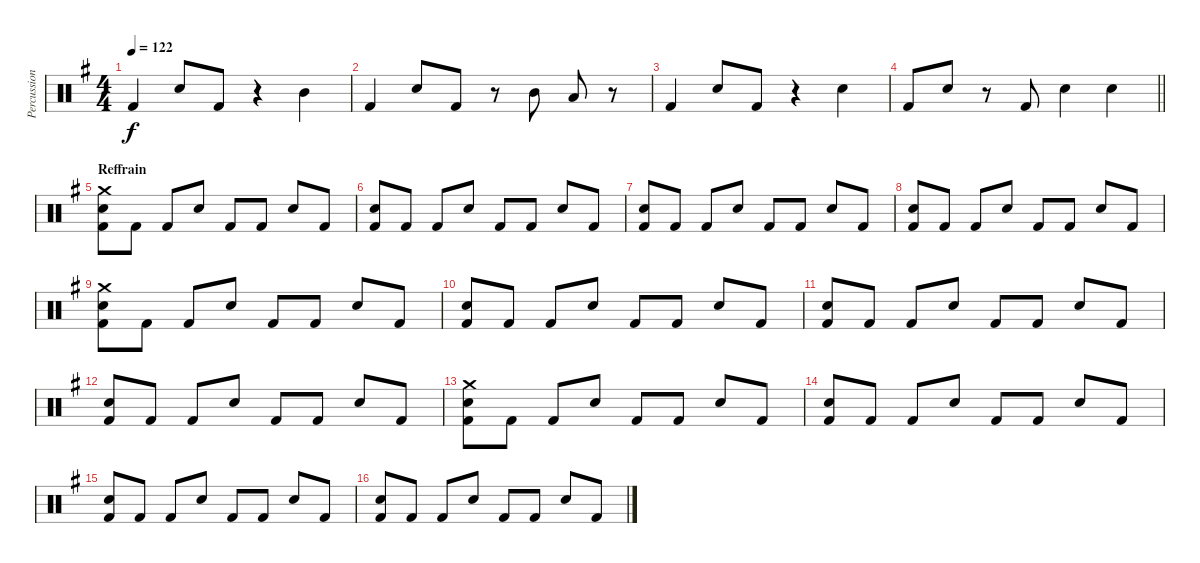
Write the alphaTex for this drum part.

\track ("Percussion" "Percussion") {instrument percussion}
\staff {score}
\articulation defaults
\ts (4 4)
\tempo 122
\clef neutral
\ks g "Kick (hit) 2".4{dy f} "Snare (hit) 2".8 "Kick (hit) 2".8
r.4 "Mid Tom (hit)".4 |
"Kick (hit) 2".4 "Snare (hit) 2".8 "Kick (hit) 2".8 r.8 "Mid Tom (hit)".8 "Low Tom (hit)".8 r.8 |
"Kick (hit) 2".4 "Snare (hit) 2".8 "Kick (hit) 2".8 r.4 "Snare (hit) 2".4 |
\barLineRight lightlight "Kick (hit) 2".8 "Snare (hit) 2".8
r.8 "Kick (hit) 2".8 "Snare (hit) 2".4 "Snare (hit) 2".4 |
\section ("" "Reffrain")
("Crash medium (hit)" "Snare (hit) 2" "Kick (hit) 2").8 "Kick (hit) 2".8 "Kick (hit) 2".8 "Snare (hit) 2".8 "Kick (hit) 2".8 "Kick (hit) 2".8 "Snare (hit) 2".8 "Kick (hit) 2".8 |
("Snare (hit) 2" "Kick (hit) 2").8 "Kick (hit) 2".8 "Kick (hit) 2".8 "Snare (hit) 2".8 "Kick (hit) 2".8 "Kick (hit) 2".8 "Snare (hit) 2".8 "Kick (hit) 2".8 |
("Snare (hit) 2" "Kick (hit) 2").8 "Kick (hit) 2".8 "Kick (hit) 2".8 "Snare (hit) 2".8 "Kick (hit) 2".8 "Kick (hit) 2".8 "Snare (hit) 2".8 "Kick (hit) 2".8 |
("Snare (hit) 2" "Kick (hit) 2").8 "Kick (hit) 2".8 "Kick (hit) 2".8 "Snare (hit) 2".8 "Kick (hit) 2".8 "Kick (hit) 2".8 "Snare (hit) 2".8 "Kick (hit) 2".8 |
("Crash medium (hit)" "Snare (hit) 2" "Kick (hit) 2").8 "Kick (hit) 2".8 "Kick (hit) 2".8 "Snare (hit) 2".8 "Kick (hit) 2".8 "Kick (hit) 2".8 "Snare (hit) 2".8 "Kick (hit) 2".8 |
("Snare (hit) 2" "Kick (hit) 2").8 "Kick (hit) 2".8 "Kick (hit) 2".8 "Snare (hit) 2".8 "Kick (hit) 2".8 "Kick (hit) 2".8 "Snare (hit) 2".8 "Kick (hit) 2".8 |
("Snare (hit) 2" "Kick (hit) 2").8 "Kick (hit) 2".8 "Kick (hit) 2".8 "Snare (hit) 2".8 "Kick (hit) 2".8 "Kick (hit) 2".8 "Snare (hit) 2".8 "Kick (hit) 2".8 |
("Snare (hit) 2" "Kick (hit) 2").8 "Kick (hit) 2".8 "Kick (hit) 2".8 "Snare (hit) 2".8 "Kick (hit) 2".8 "Kick (hit) 2".8 "Snare (hit) 2".8 "Kick (hit) 2".8 |
("Crash medium (hit)" "Snare (hit) 2" "Kick (hit) 2").8 "Kick (hit) 2".8 "Kick (hit) 2".8 "Snare (hit) 2".8 "Kick (hit) 2".8 "Kick (hit) 2".8 "Snare (hit) 2".8 "Kick (hit) 2".8 |
("Snare (hit) 2" "Kick (hit) 2").8 "Kick (hit) 2".8 "Kick (hit) 2".8 "Snare (hit) 2".8 "Kick (hit) 2".8 "Kick (hit) 2".8 "Snare (hit) 2".8 "Kick (hit) 2".8 |
("Snare (hit) 2" "Kick (hit) 2").8 "Kick (hit) 2".8 "Kick (hit) 2".8 "Snare (hit) 2".8 "Kick (hit) 2".8 "Kick (hit) 2".8 "Snare (hit) 2".8 "Kick (hit) 2".8 |
("Snare (hit) 2" "Kick (hit) 2").8 "Kick (hit) 2".8 "Kick (hit) 2".8 "Snare (hit) 2".8 "Kick (hit) 2".8 "Kick (hit) 2".8 "Snare (hit) 2".8 "Kick (hit) 2".8
